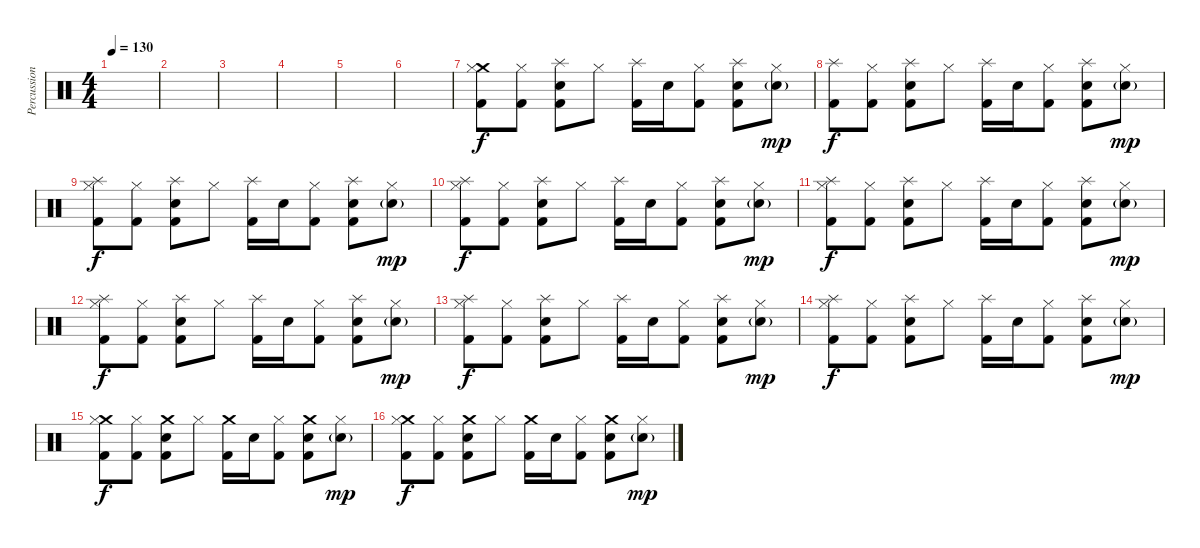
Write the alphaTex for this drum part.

\track ("Percussion" "Percussion") {instrument percussion}
\staff {score}
\articulation defaults
\ts (4 4)
\tempo 130
\clef neutral
\ks c
|
|
|
|
|
|
("Crash medium (hit)" "Hi-Hat (closed)" "Kick (hit) 2").8 ("Hi-Hat (closed)" "Kick (hit) 2").8 ("Splash (hit)" "Electric Snare (hit)" "Kick (hit) 2").8 "Hi-Hat (closed)".8 ("Splash (hit)" "Kick (hit) 2").16 "Electric Snare (hit)".16 ("Hi-Hat (closed)" "Kick (hit) 2").8 ("Splash (hit)" "Electric Snare (hit)" "Kick (hit) 2").8 ("Hi-Hat (closed)" "Electric Snare (hit)"{g}).8{dy mp} |
("Splash (hit)" "Kick (hit) 2").8{dy f} ("Hi-Hat (closed)" "Kick (hit) 2").8 ("Splash (hit)" "Electric Snare (hit)" "Kick (hit) 2").8 "Hi-Hat (closed)".8 ("Splash (hit)" "Kick (hit) 2").16 "Electric Snare (hit)".16 ("Hi-Hat (closed)" "Kick (hit) 2").8 ("Splash (hit)" "Electric Snare (hit)" "Kick (hit) 2").8 ("Hi-Hat (closed)" "Electric Snare (hit)"{g}).8{dy mp} |
("Splash (hit)" "Hi-Hat (closed)" "Kick (hit) 2").8{dy f} ("Hi-Hat (closed)" "Kick (hit) 2").8 ("Splash (hit)" "Electric Snare (hit)" "Kick (hit) 2").8 "Hi-Hat (closed)".8 ("Splash (hit)" "Kick (hit) 2").16 "Electric Snare (hit)".16 ("Hi-Hat (closed)" "Kick (hit) 2").8 ("Splash (hit)" "Electric Snare (hit)" "Kick (hit) 2").8 ("Hi-Hat (closed)" "Electric Snare (hit)"{g}).8{dy mp} |
("Splash (hit)" "Hi-Hat (closed)" "Kick (hit) 2").8{dy f} ("Hi-Hat (closed)" "Kick (hit) 2").8 ("Splash (hit)" "Electric Snare (hit)" "Kick (hit) 2").8 "Hi-Hat (closed)".8 ("Splash (hit)" "Kick (hit) 2").16 "Electric Snare (hit)".16 ("Hi-Hat (closed)" "Kick (hit) 2").8 ("Splash (hit)" "Electric Snare (hit)" "Kick (hit) 2").8 ("Hi-Hat (closed)" "Electric Snare (hit)"{g}).8{dy mp} |
("Splash (hit)" "Hi-Hat (closed)" "Kick (hit) 2").8{dy f} ("Hi-Hat (closed)" "Kick (hit) 2").8 ("Splash (hit)" "Electric Snare (hit)" "Kick (hit) 2").8 "Hi-Hat (closed)".8 ("Splash (hit)" "Kick (hit) 2").16 "Electric Snare (hit)".16 ("Hi-Hat (closed)" "Kick (hit) 2").8 ("Splash (hit)" "Electric Snare (hit)" "Kick (hit) 2").8 ("Hi-Hat (closed)" "Electric Snare (hit)"{g}).8{dy mp} |
("Splash (hit)" "Hi-Hat (closed)" "Kick (hit) 2").8{dy f} ("Hi-Hat (closed)" "Kick (hit) 2").8 ("Splash (hit)" "Electric Snare (hit)" "Kick (hit) 2").8 "Hi-Hat (closed)".8 ("Splash (hit)" "Kick (hit) 2").16 "Electric Snare (hit)".16 ("Hi-Hat (closed)" "Kick (hit) 2").8 ("Splash (hit)" "Electric Snare (hit)" "Kick (hit) 2").8 ("Hi-Hat (closed)" "Electric Snare (hit)"{g}).8{dy mp} |
("Splash (hit)" "Hi-Hat (closed)" "Kick (hit) 2").8{dy f} ("Hi-Hat (closed)" "Kick (hit) 2").8 ("Splash (hit)" "Electric Snare (hit)" "Kick (hit) 2").8 "Hi-Hat (closed)".8 ("Splash (hit)" "Kick (hit) 2").16 "Electric Snare (hit)".16 ("Hi-Hat (closed)" "Kick (hit) 2").8 ("Splash (hit)" "Electric Snare (hit)" "Kick (hit) 2").8 ("Hi-Hat (closed)" "Electric Snare (hit)"{g}).8{dy mp} |
("Splash (hit)" "Hi-Hat (closed)" "Kick (hit) 2").8{dy f} ("Hi-Hat (closed)" "Kick (hit) 2").8 ("Splash (hit)" "Electric Snare (hit)" "Kick (hit) 2").8 "Hi-Hat (closed)".8 ("Splash (hit)" "Kick (hit) 2").16 "Electric Snare (hit)".16 ("Hi-Hat (closed)" "Kick (hit) 2").8 ("Splash (hit)" "Electric Snare (hit)" "Kick (hit) 2").8 ("Hi-Hat (closed)" "Electric Snare (hit)"{g}).8{dy mp} |
("Crash medium (hit)" "Hi-Hat (closed)" "Kick (hit) 2").8{dy f} ("Hi-Hat (closed)" "Kick (hit) 2").8 ("Crash medium (hit)" "Electric Snare (hit)" "Kick (hit) 2").8 "Hi-Hat (closed)".8 ("Crash medium (hit)" "Kick (hit) 2").16 "Electric Snare (hit)".16 ("Hi-Hat (closed)" "Kick (hit) 2").8 ("Crash medium (hit)" "Electric Snare (hit)" "Kick (hit) 2").8 ("Hi-Hat (closed)" "Electric Snare (hit)"{g}).8{dy mp} |
("Crash medium (hit)" "Hi-Hat (closed)" "Kick (hit) 2").8{dy f} ("Hi-Hat (closed)" "Kick (hit) 2").8 ("Crash medium (hit)" "Electric Snare (hit)" "Kick (hit) 2").8 "Hi-Hat (closed)".8 ("Crash medium (hit)" "Kick (hit) 2").16 "Electric Snare (hit)".16 ("Hi-Hat (closed)" "Kick (hit) 2").8 ("Crash medium (hit)" "Electric Snare (hit)" "Kick (hit) 2").8 ("Hi-Hat (closed)" "Electric Snare (hit)"{g}).8{dy mp}
